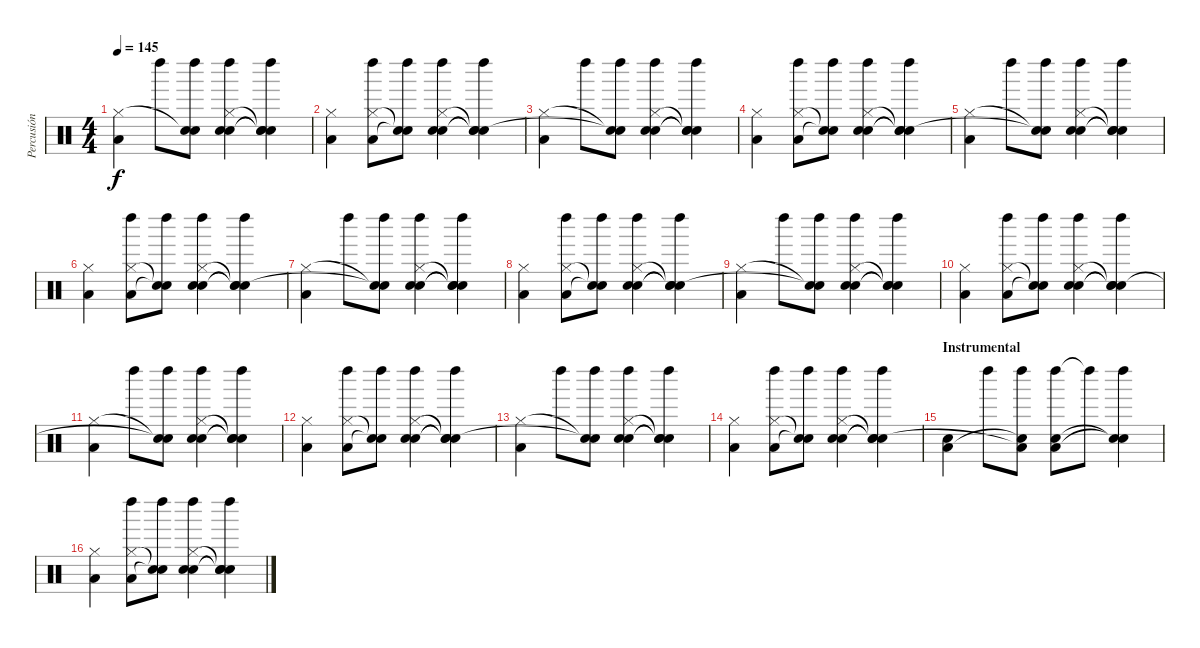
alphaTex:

\track ("Percusión" "Percusión") {instrument percussion}
\staff {score}
\articulation defaults
\ts (4 4)
\tempo 145
\clef neutral
\ks c
("Low Floor Tom (hit)" "Hi-Hat (closed)").4{dy f} "Left Maraca (hit)".8 ("Left Maraca (hit)" "Snare (hit)"{t} "Snare (hit)"{t}).8 ("Left Maraca (hit)" "Electric Snare (hit)" "Hi-Hat (closed)" "Snare (hit) 2").4 ("Left Maraca (hit)" "Snare (hit)"{t} "Snare (hit)"{t} "Snare (hit)"{t}).4 |
("Low Floor Tom (hit)" "Hi-Hat (closed)").4 ("Left Maraca (hit)" "Low Floor Tom (hit)" "Hi-Hat (closed)").8 ("Left Maraca (hit)" "Snare (hit)"{t} "Snare (hit)"{t}).8 ("Left Maraca (hit)" "Electric Snare (hit)" "Hi-Hat (closed)" "Snare (hit) 2").4 ("Left Maraca (hit)" "Snare (hit)"{t} "Snare (hit)"{t} "Snare (hit)"{t}).4 |
("Low Floor Tom (hit)" "Hi-Hat (closed)").4 "Left Maraca (hit)".8 ("Left Maraca (hit)" "Snare (hit)"{t} "Snare (hit)"{t}).8 ("Left Maraca (hit)" "Electric Snare (hit)" "Hi-Hat (closed)" "Snare (hit) 2").4 ("Left Maraca (hit)" "Snare (hit)"{t} "Snare (hit)"{t} "Snare (hit)"{t}).4 |
("Low Floor Tom (hit)" "Hi-Hat (closed)").4 ("Left Maraca (hit)" "Low Floor Tom (hit)" "Hi-Hat (closed)").8 ("Left Maraca (hit)" "Snare (hit)"{t} "Snare (hit)"{t}).8 ("Left Maraca (hit)" "Electric Snare (hit)" "Hi-Hat (closed)" "Snare (hit) 2").4 ("Left Maraca (hit)" "Snare (hit)"{t} "Snare (hit)"{t} "Snare (hit)"{t}).4 |
("Low Floor Tom (hit)" "Hi-Hat (closed)").4 "Left Maraca (hit)".8 ("Left Maraca (hit)" "Snare (hit)"{t} "Snare (hit)"{t}).8 ("Left Maraca (hit)" "Electric Snare (hit)" "Hi-Hat (closed)" "Snare (hit) 2").4 ("Left Maraca (hit)" "Snare (hit)"{t} "Snare (hit)"{t} "Snare (hit)"{t}).4 |
("Low Floor Tom (hit)" "Hi-Hat (closed)").4 ("Left Maraca (hit)" "Low Floor Tom (hit)" "Hi-Hat (closed)").8 ("Left Maraca (hit)" "Snare (hit)"{t} "Snare (hit)"{t}).8 ("Left Maraca (hit)" "Electric Snare (hit)" "Hi-Hat (closed)" "Snare (hit) 2").4 ("Left Maraca (hit)" "Snare (hit)"{t} "Snare (hit)"{t} "Snare (hit)"{t}).4 |
("Low Floor Tom (hit)" "Hi-Hat (closed)").4 "Left Maraca (hit)".8 ("Left Maraca (hit)" "Snare (hit)"{t} "Snare (hit)"{t}).8 ("Left Maraca (hit)" "Electric Snare (hit)" "Hi-Hat (closed)" "Snare (hit) 2").4 ("Left Maraca (hit)" "Snare (hit)"{t} "Snare (hit)"{t} "Snare (hit)"{t}).4 |
("Low Floor Tom (hit)" "Hi-Hat (closed)").4 ("Left Maraca (hit)" "Low Floor Tom (hit)" "Hi-Hat (closed)").8 ("Left Maraca (hit)" "Snare (hit)"{t} "Snare (hit)"{t}).8 ("Left Maraca (hit)" "Electric Snare (hit)" "Hi-Hat (closed)" "Snare (hit) 2").4 ("Left Maraca (hit)" "Snare (hit)"{t} "Snare (hit)"{t} "Snare (hit)"{t}).4 |
("Low Floor Tom (hit)" "Hi-Hat (closed)").4 "Left Maraca (hit)".8 ("Left Maraca (hit)" "Snare (hit)"{t} "Snare (hit)"{t}).8 ("Left Maraca (hit)" "Electric Snare (hit)" "Hi-Hat (closed)" "Snare (hit) 2").4 ("Left Maraca (hit)" "Snare (hit)"{t} "Snare (hit)"{t} "Snare (hit)"{t}).4 |
("Low Floor Tom (hit)" "Hi-Hat (closed)").4 ("Left Maraca (hit)" "Low Floor Tom (hit)" "Hi-Hat (closed)").8 ("Left Maraca (hit)" "Snare (hit)"{t} "Snare (hit)"{t}).8 ("Left Maraca (hit)" "Electric Snare (hit)" "Hi-Hat (closed)" "Snare (hit) 2").4 ("Left Maraca (hit)" "Snare (hit)"{t} "Snare (hit)"{t} "Snare (hit)"{t}).4 |
("Low Floor Tom (hit)" "Hi-Hat (closed)").4 "Left Maraca (hit)".8 ("Left Maraca (hit)" "Snare (hit)"{t} "Snare (hit)"{t}).8 ("Left Maraca (hit)" "Electric Snare (hit)" "Hi-Hat (closed)" "Snare (hit) 2").4 ("Left Maraca (hit)" "Snare (hit)"{t} "Snare (hit)"{t} "Snare (hit)"{t}).4 |
("Low Floor Tom (hit)" "Hi-Hat (closed)").4 ("Left Maraca (hit)" "Low Floor Tom (hit)" "Hi-Hat (closed)").8 ("Left Maraca (hit)" "Snare (hit)"{t} "Snare (hit)"{t}).8 ("Left Maraca (hit)" "Electric Snare (hit)" "Hi-Hat (closed)" "Snare (hit) 2").4 ("Left Maraca (hit)" "Snare (hit)"{t} "Snare (hit)"{t} "Snare (hit)"{t}).4 |
("Low Floor Tom (hit)" "Hi-Hat (closed)").4 "Left Maraca (hit)".8 ("Left Maraca (hit)" "Snare (hit)"{t} "Snare (hit)"{t}).8 ("Left Maraca (hit)" "Electric Snare (hit)" "Hi-Hat (closed)" "Snare (hit) 2").4 ("Left Maraca (hit)" "Snare (hit)"{t} "Snare (hit)"{t} "Snare (hit)"{t}).4 |
("Low Floor Tom (hit)" "Hi-Hat (closed)").4 ("Left Maraca (hit)" "Low Floor Tom (hit)" "Hi-Hat (closed)").8 ("Left Maraca (hit)" "Snare (hit)"{t} "Snare (hit)"{t}).8 ("Left Maraca (hit)" "Electric Snare (hit)" "Hi-Hat (closed)" "Snare (hit) 2").4 ("Left Maraca (hit)" "Snare (hit)"{t} "Snare (hit)"{t} "Snare (hit)"{t}).4 |
\section ("" "Instrumental")
("Snare (hit) 2" "Low Floor Tom (hit)").4 "Left Maraca (hit)".8 ("Left Maraca (hit)" "Snare (hit)"{t} "Low Floor Tom (hit)"{t}).8 ("Left Maraca (hit)" "Snare (hit) 2" "Low Floor Tom (hit)").8 "Left Maraca (hit)"{t}.8 ("Left Maraca (hit)" "Snare (hit)"{t} "Snare (hit)"{t}).4 |
("Low Floor Tom (hit)" "Hi-Hat (closed)").4 ("Left Maraca (hit)" "Low Floor Tom (hit)" "Hi-Hat (closed)").8 ("Left Maraca (hit)" "Snare (hit)"{t} "Snare (hit)"{t}).8 ("Left Maraca (hit)" "Electric Snare (hit)" "Hi-Hat (closed)" "Snare (hit) 2").4 ("Left Maraca (hit)" "Snare (hit)"{t} "Snare (hit)"{t} "Snare (hit)"{t}).4
